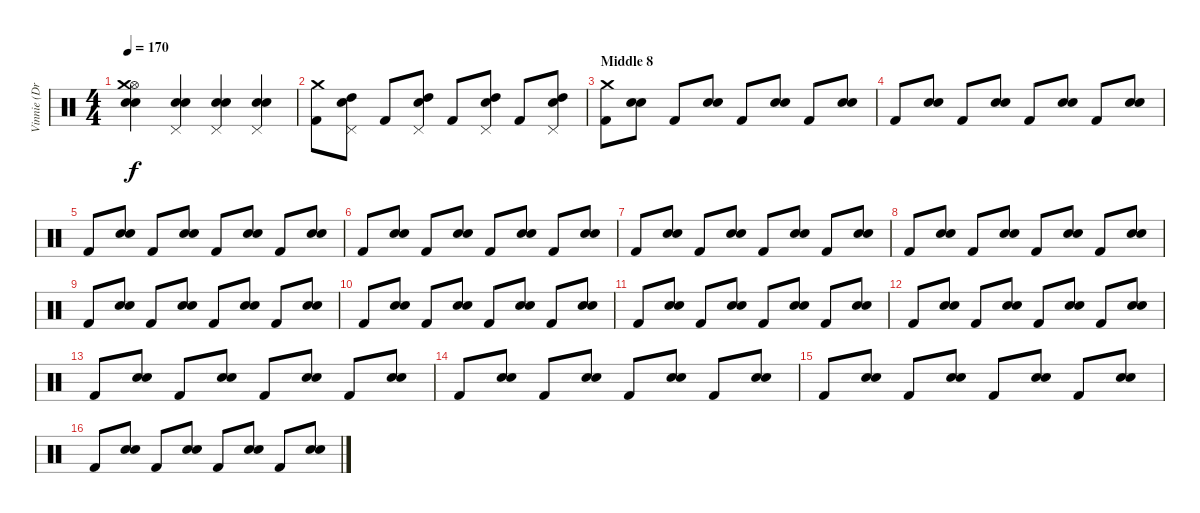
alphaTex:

\track ("Vinnie (Drums)" "Vinnie (Dr") {instrument percussion}
\staff {score}
\articulation defaults
\ts (4 4)
\tempo 170
\clef neutral
\ks c
("Snare (hit) 2" "Electric Snare (hit)" "Hi-Hat (open)" "Crash medium (hit)").4{dy f} ("Snare (hit) 2" "Electric Snare (hit)" "Pedal Hi-Hat (hit)").4 ("Snare (hit) 2" "Electric Snare (hit)" "Pedal Hi-Hat (hit)").4 ("Snare (hit) 2" "Electric Snare (hit)" "Pedal Hi-Hat (hit)").4 |
("Kick (hit) 2" "Crash medium (hit)").8 ("Snare (hit) 2" "High Tom (hit)" "Pedal Hi-Hat (hit)").8 "Kick (hit) 2".8 ("Snare (hit) 2" "High Tom (hit)" "Pedal Hi-Hat (hit)").8 "Kick (hit) 2".8 ("Snare (hit) 2" "High Tom (hit)" "Pedal Hi-Hat (hit)").8 "Kick (hit) 2".8 ("Snare (hit) 2" "High Tom (hit)" "Pedal Hi-Hat (hit)").8 |
\section ("" "Middle 8")
("Kick (hit) 2" "Crash medium (hit)").8 ("Snare (hit) 2" "Electric Snare (hit)").8 "Kick (hit) 2".8 ("Snare (hit) 2" "Electric Snare (hit)").8 "Kick (hit) 2".8 ("Snare (hit) 2" "Electric Snare (hit)").8 "Kick (hit) 2".8 ("Snare (hit) 2" "Electric Snare (hit)").8 |
"Kick (hit) 2".8 ("Snare (hit) 2" "Electric Snare (hit)").8 "Kick (hit) 2".8 ("Snare (hit) 2" "Electric Snare (hit)").8 "Kick (hit) 2".8 ("Snare (hit) 2" "Electric Snare (hit)").8 "Kick (hit) 2".8 ("Snare (hit) 2" "Electric Snare (hit)").8 |
"Kick (hit) 2".8 ("Snare (hit) 2" "Electric Snare (hit)").8 "Kick (hit) 2".8 ("Snare (hit) 2" "Electric Snare (hit)").8 "Kick (hit) 2".8 ("Snare (hit) 2" "Electric Snare (hit)").8 "Kick (hit) 2".8 ("Snare (hit) 2" "Electric Snare (hit)").8 |
"Kick (hit) 2".8 ("Snare (hit) 2" "Electric Snare (hit)").8 "Kick (hit) 2".8 ("Snare (hit) 2" "Electric Snare (hit)").8 "Kick (hit) 2".8 ("Snare (hit) 2" "Electric Snare (hit)").8 "Kick (hit) 2".8 ("Snare (hit) 2" "Electric Snare (hit)").8 |
"Kick (hit) 2".8 ("Snare (hit) 2" "Electric Snare (hit)").8 "Kick (hit) 2".8 ("Snare (hit) 2" "Electric Snare (hit)").8 "Kick (hit) 2".8 ("Snare (hit) 2" "Electric Snare (hit)").8 "Kick (hit) 2".8 ("Snare (hit) 2" "Electric Snare (hit)").8 |
"Kick (hit) 2".8 ("Snare (hit) 2" "Electric Snare (hit)").8 "Kick (hit) 2".8 ("Snare (hit) 2" "Electric Snare (hit)").8 "Kick (hit) 2".8 ("Snare (hit) 2" "Electric Snare (hit)").8 "Kick (hit) 2".8 ("Snare (hit) 2" "Electric Snare (hit)").8 |
"Kick (hit) 2".8 ("Snare (hit) 2" "Electric Snare (hit)").8 "Kick (hit) 2".8 ("Snare (hit) 2" "Electric Snare (hit)").8 "Kick (hit) 2".8 ("Snare (hit) 2" "Electric Snare (hit)").8 "Kick (hit) 2".8 ("Snare (hit) 2" "Electric Snare (hit)").8 |
"Kick (hit) 2".8 ("Snare (hit) 2" "Electric Snare (hit)").8 "Kick (hit) 2".8 ("Snare (hit) 2" "Electric Snare (hit)").8 "Kick (hit) 2".8 ("Snare (hit) 2" "Electric Snare (hit)").8 "Kick (hit) 2".8 ("Snare (hit) 2" "Electric Snare (hit)").8 |
"Kick (hit) 2".8 ("Snare (hit) 2" "Electric Snare (hit)").8 "Kick (hit) 2".8 ("Snare (hit) 2" "Electric Snare (hit)").8 "Kick (hit) 2".8 ("Snare (hit) 2" "Electric Snare (hit)").8 "Kick (hit) 2".8 ("Snare (hit) 2" "Electric Snare (hit)").8 |
"Kick (hit) 2".8 ("Snare (hit) 2" "Electric Snare (hit)").8 "Kick (hit) 2".8 ("Snare (hit) 2" "Electric Snare (hit)").8 "Kick (hit) 2".8 ("Snare (hit) 2" "Electric Snare (hit)").8 "Kick (hit) 2".8 ("Snare (hit) 2" "Electric Snare (hit)").8 |
"Kick (hit) 2".8 ("Snare (hit) 2" "Electric Snare (hit)").8 "Kick (hit) 2".8 ("Snare (hit) 2" "Electric Snare (hit)").8 "Kick (hit) 2".8 ("Snare (hit) 2" "Electric Snare (hit)").8 "Kick (hit) 2".8 ("Snare (hit) 2" "Electric Snare (hit)").8 |
"Kick (hit) 2".8 ("Snare (hit) 2" "Electric Snare (hit)").8 "Kick (hit) 2".8 ("Snare (hit) 2" "Electric Snare (hit)").8 "Kick (hit) 2".8 ("Snare (hit) 2" "Electric Snare (hit)").8 "Kick (hit) 2".8 ("Snare (hit) 2" "Electric Snare (hit)").8 |
"Kick (hit) 2".8 ("Snare (hit) 2" "Electric Snare (hit)").8 "Kick (hit) 2".8 ("Snare (hit) 2" "Electric Snare (hit)").8 "Kick (hit) 2".8 ("Snare (hit) 2" "Electric Snare (hit)").8 "Kick (hit) 2".8 ("Snare (hit) 2" "Electric Snare (hit)").8 |
"Kick (hit) 2".8 ("Snare (hit) 2" "Electric Snare (hit)").8 "Kick (hit) 2".8 ("Snare (hit) 2" "Electric Snare (hit)").8 "Kick (hit) 2".8 ("Snare (hit) 2" "Electric Snare (hit)").8 "Kick (hit) 2".8 ("Snare (hit) 2" "Electric Snare (hit)").8
